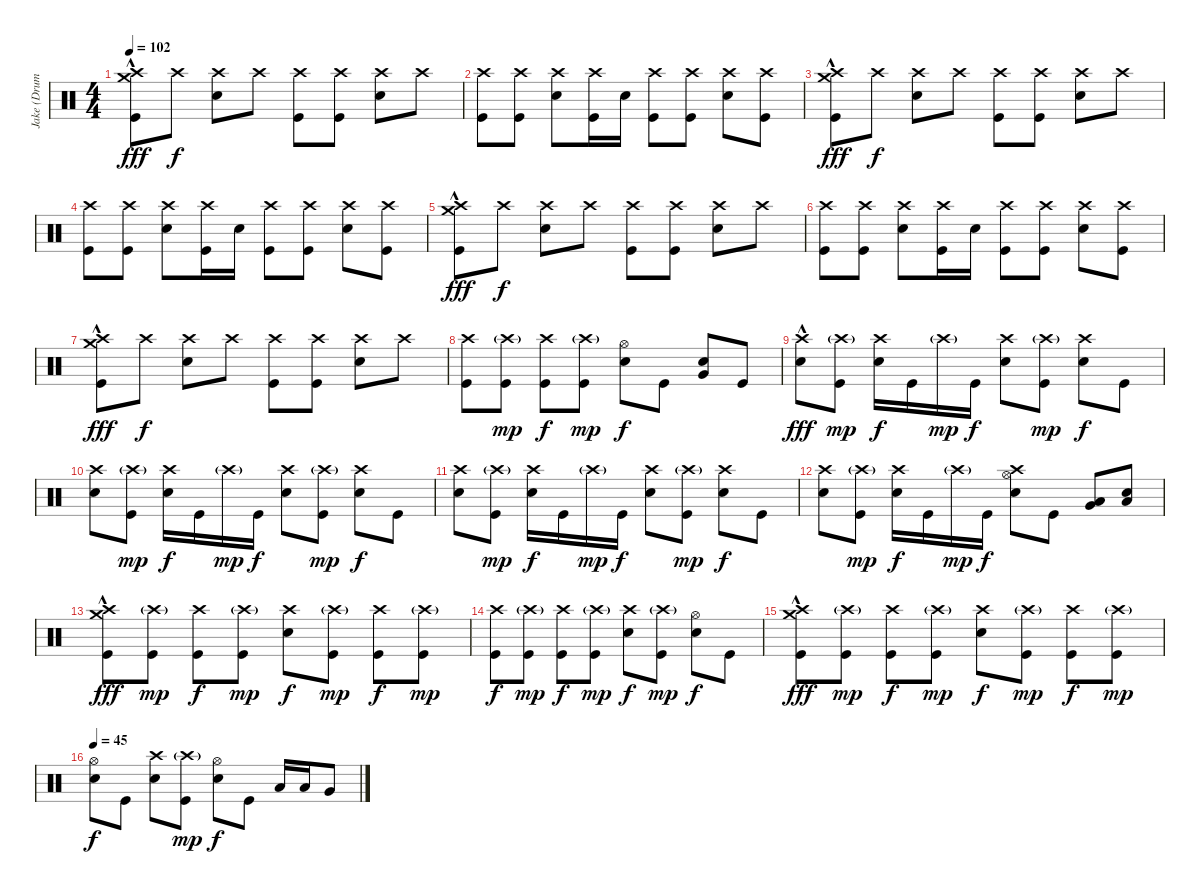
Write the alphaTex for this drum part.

\track ("Jake (Drums)" "Jake (Drum") {instrument percussion}
\staff {score}
\articulation defaults
\ts (4 4)
\tempo 102
\clef neutral
\ks c
("Crash high (hit)"{hac} "Crash medium (hit)" "Kick (hit)").8{dy fff} "Crash high (hit)".8{dy f} ("Crash high (hit)" "Snare (hit) 2").8 "Crash high (hit)".8 ("Crash high (hit)" "Kick (hit)").8 ("Crash high (hit)" "Kick (hit)").8 ("Crash high (hit)" "Snare (hit) 2").8 "Crash high (hit)".8 |
("Crash high (hit)" "Kick (hit)").8 ("Crash high (hit)" "Kick (hit)").8 ("Crash high (hit)" "Snare (hit) 2").8 ("Crash high (hit)" "Kick (hit)").16 "Snare (hit) 2".16 ("Crash high (hit)" "Kick (hit)").8 ("Crash high (hit)" "Kick (hit)").8 ("Crash high (hit)" "Snare (hit) 2").8 ("Crash high (hit)" "Kick (hit)").8 |
("Crash high (hit)"{hac} "Crash medium (hit)" "Kick (hit)").8{dy fff} "Crash high (hit)".8{dy f} ("Crash high (hit)" "Snare (hit) 2").8 "Crash high (hit)".8 ("Crash high (hit)" "Kick (hit)").8 ("Crash high (hit)" "Kick (hit)").8 ("Crash high (hit)" "Snare (hit) 2").8 "Crash high (hit)".8 |
("Crash high (hit)" "Kick (hit)").8 ("Crash high (hit)" "Kick (hit)").8 ("Crash high (hit)" "Snare (hit) 2").8 ("Crash high (hit)" "Kick (hit)").16 "Snare (hit) 2".16 ("Crash high (hit)" "Kick (hit)").8 ("Crash high (hit)" "Kick (hit)").8 ("Crash high (hit)" "Snare (hit) 2").8 ("Crash high (hit)" "Kick (hit)").8 |
("Crash high (hit)"{hac} "Crash medium (hit)" "Kick (hit)").8{dy fff} "Crash high (hit)".8{dy f} ("Crash high (hit)" "Snare (hit) 2").8 "Crash high (hit)".8 ("Crash high (hit)" "Kick (hit)").8 ("Crash high (hit)" "Kick (hit)").8 ("Crash high (hit)" "Snare (hit) 2").8 "Crash high (hit)".8 |
("Crash high (hit)" "Kick (hit)").8 ("Crash high (hit)" "Kick (hit)").8 ("Crash high (hit)" "Snare (hit) 2").8 ("Crash high (hit)" "Kick (hit)").16 "Snare (hit) 2".16 ("Crash high (hit)" "Kick (hit)").8 ("Crash high (hit)" "Kick (hit)").8 ("Crash high (hit)" "Snare (hit) 2").8 ("Crash high (hit)" "Kick (hit)").8 |
("Crash high (hit)"{hac} "Crash medium (hit)" "Kick (hit)").8{dy fff} "Crash high (hit)".8{dy f} ("Crash high (hit)" "Snare (hit) 2").8 "Crash high (hit)".8 ("Crash high (hit)" "Kick (hit)").8 ("Crash high (hit)" "Kick (hit)").8 ("Crash high (hit)" "Snare (hit) 2").8 "Crash high (hit)".8 |
("Crash high (hit)" "Kick (hit)").8 ("Crash high (hit)"{g} "Kick (hit)").8{dy mp} ("Crash high (hit)" "Kick (hit)").8{dy f} ("Crash high (hit)"{g} "Kick (hit)").8{dy mp} ("Hi-Hat (open)" "Snare (hit) 2").8{dy f} "Kick (hit)".8 ("Snare (hit) 2" "Very Low Tom (hit)").8 "Kick (hit)".8 |
("Crash high (hit)"{hac} "Snare (hit) 2").8{dy fff} ("Crash high (hit)"{g} "Kick (hit)").8{dy mp} ("Crash high (hit)" "Snare (hit) 2").16{dy f} "Kick (hit)".16 "Crash high (hit)"{g}.16{dy mp} "Kick (hit)".16{dy f} ("Crash high (hit)" "Snare (hit) 2").8 ("Crash high (hit)"{g} "Kick (hit)").8{dy mp} ("Crash high (hit)" "Snare (hit) 2").8{dy f} "Kick (hit)".8 |
("Crash high (hit)" "Snare (hit) 2").8 ("Crash high (hit)"{g} "Kick (hit)").8{dy mp} ("Crash high (hit)" "Snare (hit) 2").16{dy f} "Kick (hit)".16 "Crash high (hit)"{g}.16{dy mp} "Kick (hit)".16{dy f} ("Crash high (hit)" "Snare (hit) 2").8 ("Crash high (hit)"{g} "Kick (hit)").8{dy mp} ("Crash high (hit)" "Snare (hit) 2").8{dy f} "Kick (hit)".8 |
("Crash high (hit)" "Snare (hit) 2").8 ("Crash high (hit)"{g} "Kick (hit)").8{dy mp} ("Crash high (hit)" "Snare (hit) 2").16{dy f} "Kick (hit)".16 "Crash high (hit)"{g}.16{dy mp} "Kick (hit)".16{dy f} ("Crash high (hit)" "Snare (hit) 2").8 ("Crash high (hit)"{g} "Kick (hit)").8{dy mp} ("Crash high (hit)" "Snare (hit) 2").8{dy f} "Kick (hit)".8 |
("Crash high (hit)" "Snare (hit) 2").8 ("Crash high (hit)"{g} "Kick (hit)").8{dy mp} ("Crash high (hit)" "Snare (hit) 2").16{dy f} "Kick (hit)".16 "Crash high (hit)"{g}.16{dy mp} "Kick (hit)".16{dy f} ("Crash high (hit)" "Hi-Hat (open)" "Snare (hit) 2").8 "Kick (hit)".8 ("Low Tom (hit)" "Very Low Tom (hit)").8 ("Snare (hit) 2" "Low Floor Tom (hit)").8 |
("Crash high (hit)"{hac} "Crash medium (hit)" "Kick (hit)").8{dy fff} ("Crash high (hit)"{g} "Kick (hit)").8{dy mp} ("Crash high (hit)" "Kick (hit)").8{dy f} ("Crash high (hit)"{g} "Kick (hit)").8{dy mp} ("Crash high (hit)" "Snare (hit) 2").8{dy f} ("Crash high (hit)"{g} "Kick (hit)").8{dy mp} ("Crash high (hit)" "Kick (hit)").8{dy f} ("Crash high (hit)"{g} "Kick (hit)").8{dy mp} |
("Crash high (hit)" "Kick (hit)").8{dy f} ("Crash high (hit)"{g} "Kick (hit)").8{dy mp} ("Crash high (hit)" "Kick (hit)").8{dy f} ("Crash high (hit)"{g} "Kick (hit)").8{dy mp} ("Crash high (hit)" "Snare (hit) 2").8{dy f} ("Crash high (hit)"{g} "Kick (hit)").8{dy mp} ("Hi-Hat (open)" "Snare (hit) 2").8{dy f} "Kick (hit)".8 |
("Crash high (hit)"{hac} "Crash medium (hit)" "Kick (hit)").8{dy fff} ("Crash high (hit)"{g} "Kick (hit)").8{dy mp} ("Crash high (hit)" "Kick (hit)").8{dy f} ("Crash high (hit)"{g} "Kick (hit)").8{dy mp} ("Crash high (hit)" "Snare (hit) 2").8{dy f} ("Crash high (hit)"{g} "Kick (hit)").8{dy mp} ("Crash high (hit)" "Kick (hit)").8{dy f} ("Crash high (hit)"{g} "Kick (hit)").8{dy mp} |
\tempo 45
("Hi-Hat (open)" "Snare (hit) 2").8{dy f} "Kick (hit)".8 ("Crash high (hit)" "Snare (hit) 2").8 ("Crash high (hit)"{g} "Kick (hit)").8{dy mp} ("Hi-Hat (open)" "Snare (hit) 2").8{dy f} "Kick (hit)".8 "Low Tom (hit)".16 "Low Tom (hit)".16 "Very Low Tom (hit)".8
